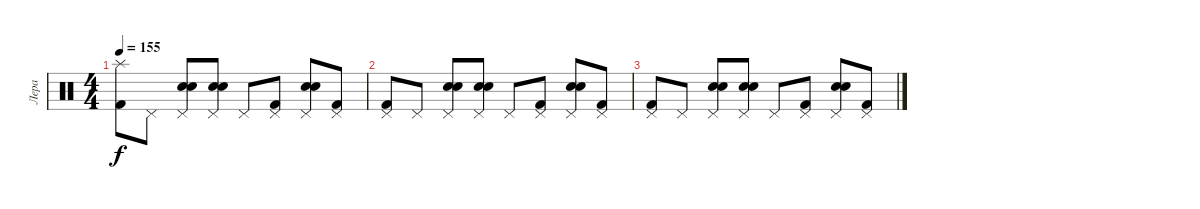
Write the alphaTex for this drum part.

\track ("Лера" "Лера") {instrument percussion}
\staff {score}
\articulation defaults
\ts (4 4)
\tempo 155
\clef neutral
\ks c
("Splash (hit)" "Kick (hit) 2").8{dy f} "Pedal Hi-Hat (hit)".8 ("Pedal Hi-Hat (hit)" "Hand Clap (hit)" "Electric Snare (hit)").8 ("Pedal Hi-Hat (hit)" "Hand Clap (hit)" "Electric Snare (hit)").8 "Pedal Hi-Hat (hit)".8 ("Pedal Hi-Hat (hit)" "Kick (hit) 2").8 ("Pedal Hi-Hat (hit)" "Hand Clap (hit)" "Electric Snare (hit)").8 ("Pedal Hi-Hat (hit)" "Kick (hit) 2").8 |
("Pedal Hi-Hat (hit)" "Kick (hit) 2").8 "Pedal Hi-Hat (hit)".8 ("Pedal Hi-Hat (hit)" "Hand Clap (hit)" "Electric Snare (hit)").8 ("Pedal Hi-Hat (hit)" "Hand Clap (hit)" "Electric Snare (hit)").8 "Pedal Hi-Hat (hit)".8 ("Pedal Hi-Hat (hit)" "Kick (hit) 2").8 ("Pedal Hi-Hat (hit)" "Hand Clap (hit)" "Electric Snare (hit)").8 ("Pedal Hi-Hat (hit)" "Kick (hit) 2").8 |
("Pedal Hi-Hat (hit)" "Kick (hit) 2").8 "Pedal Hi-Hat (hit)".8 ("Pedal Hi-Hat (hit)" "Hand Clap (hit)" "Electric Snare (hit)").8 ("Pedal Hi-Hat (hit)" "Hand Clap (hit)" "Electric Snare (hit)").8 "Pedal Hi-Hat (hit)".8 ("Pedal Hi-Hat (hit)" "Kick (hit) 2").8 ("Pedal Hi-Hat (hit)" "Hand Clap (hit)" "Electric Snare (hit)").8 ("Pedal Hi-Hat (hit)" "Kick (hit) 2").8
